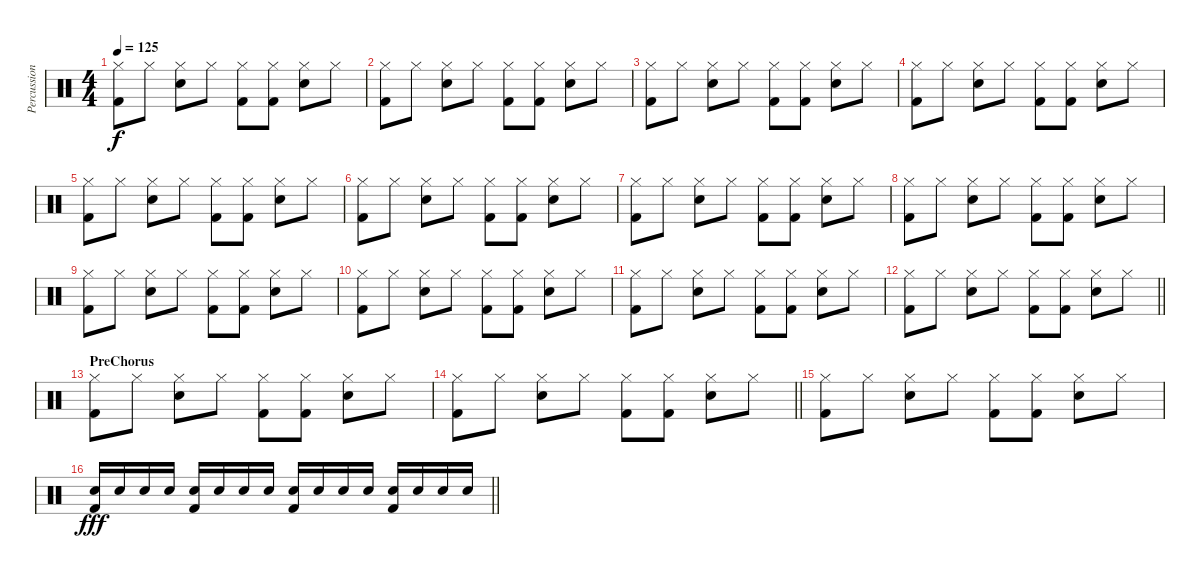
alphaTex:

\track ("Percussion" "Percussion") {instrument percussion}
\staff {score}
\articulation defaults
\ts (4 4)
\tempo 125
\clef neutral
\ks c
("Hi-Hat (closed)" "Kick (hit) 2").8{dy f} "Hi-Hat (closed)".8 ("Hi-Hat (closed)" "Electric Snare (hit)").8 "Hi-Hat (closed)".8 ("Hi-Hat (closed)" "Kick (hit) 2").8 ("Hi-Hat (closed)" "Kick (hit) 2").8 ("Hi-Hat (closed)" "Electric Snare (hit)").8 "Hi-Hat (closed)".8 |
("Hi-Hat (closed)" "Kick (hit) 2").8 "Hi-Hat (closed)".8 ("Hi-Hat (closed)" "Electric Snare (hit)").8 "Hi-Hat (closed)".8 ("Hi-Hat (closed)" "Kick (hit) 2").8 ("Hi-Hat (closed)" "Kick (hit) 2").8 ("Hi-Hat (closed)" "Electric Snare (hit)").8 "Hi-Hat (closed)".8 |
("Hi-Hat (closed)" "Kick (hit) 2").8 "Hi-Hat (closed)".8 ("Hi-Hat (closed)" "Electric Snare (hit)").8 "Hi-Hat (closed)".8 ("Hi-Hat (closed)" "Kick (hit) 2").8 ("Hi-Hat (closed)" "Kick (hit) 2").8 ("Hi-Hat (closed)" "Electric Snare (hit)").8 "Hi-Hat (closed)".8 |
("Hi-Hat (closed)" "Kick (hit) 2").8 "Hi-Hat (closed)".8 ("Hi-Hat (closed)" "Electric Snare (hit)").8 "Hi-Hat (closed)".8 ("Hi-Hat (closed)" "Kick (hit) 2").8 ("Hi-Hat (closed)" "Kick (hit) 2").8 ("Hi-Hat (closed)" "Electric Snare (hit)").8 "Hi-Hat (closed)".8 |
("Hi-Hat (closed)" "Kick (hit) 2").8 "Hi-Hat (closed)".8 ("Hi-Hat (closed)" "Electric Snare (hit)").8 "Hi-Hat (closed)".8 ("Hi-Hat (closed)" "Kick (hit) 2").8 ("Hi-Hat (closed)" "Kick (hit) 2").8 ("Hi-Hat (closed)" "Electric Snare (hit)").8 "Hi-Hat (closed)".8 |
("Hi-Hat (closed)" "Kick (hit) 2").8 "Hi-Hat (closed)".8 ("Hi-Hat (closed)" "Electric Snare (hit)").8 "Hi-Hat (closed)".8 ("Hi-Hat (closed)" "Kick (hit) 2").8 ("Hi-Hat (closed)" "Kick (hit) 2").8 ("Hi-Hat (closed)" "Electric Snare (hit)").8 "Hi-Hat (closed)".8 |
("Hi-Hat (closed)" "Kick (hit) 2").8 "Hi-Hat (closed)".8 ("Hi-Hat (closed)" "Electric Snare (hit)").8 "Hi-Hat (closed)".8 ("Hi-Hat (closed)" "Kick (hit) 2").8 ("Hi-Hat (closed)" "Kick (hit) 2").8 ("Hi-Hat (closed)" "Electric Snare (hit)").8 "Hi-Hat (closed)".8 |
("Hi-Hat (closed)" "Kick (hit) 2").8 "Hi-Hat (closed)".8 ("Hi-Hat (closed)" "Electric Snare (hit)").8 "Hi-Hat (closed)".8 ("Hi-Hat (closed)" "Kick (hit) 2").8 ("Hi-Hat (closed)" "Kick (hit) 2").8 ("Hi-Hat (closed)" "Electric Snare (hit)").8 "Hi-Hat (closed)".8 |
("Hi-Hat (closed)" "Kick (hit) 2").8 "Hi-Hat (closed)".8 ("Hi-Hat (closed)" "Electric Snare (hit)").8 "Hi-Hat (closed)".8 ("Hi-Hat (closed)" "Kick (hit) 2").8 ("Hi-Hat (closed)" "Kick (hit) 2").8 ("Hi-Hat (closed)" "Electric Snare (hit)").8 "Hi-Hat (closed)".8 |
("Hi-Hat (closed)" "Kick (hit) 2").8 "Hi-Hat (closed)".8 ("Hi-Hat (closed)" "Electric Snare (hit)").8 "Hi-Hat (closed)".8 ("Hi-Hat (closed)" "Kick (hit) 2").8 ("Hi-Hat (closed)" "Kick (hit) 2").8 ("Hi-Hat (closed)" "Electric Snare (hit)").8 "Hi-Hat (closed)".8 |
("Hi-Hat (closed)" "Kick (hit) 2").8 "Hi-Hat (closed)".8 ("Hi-Hat (closed)" "Electric Snare (hit)").8 "Hi-Hat (closed)".8 ("Hi-Hat (closed)" "Kick (hit) 2").8 ("Hi-Hat (closed)" "Kick (hit) 2").8 ("Hi-Hat (closed)" "Electric Snare (hit)").8 "Hi-Hat (closed)".8 |
\barLineRight lightlight
("Hi-Hat (closed)" "Kick (hit) 2").8 "Hi-Hat (closed)".8 ("Hi-Hat (closed)" "Electric Snare (hit)").8 "Hi-Hat (closed)".8 ("Hi-Hat (closed)" "Kick (hit) 2").8 ("Hi-Hat (closed)" "Kick (hit) 2").8 ("Hi-Hat (closed)" "Electric Snare (hit)").8 "Hi-Hat (closed)".8 |
\section ("" "PreChorus")
("Hi-Hat (closed)" "Kick (hit) 2").8 "Hi-Hat (closed)".8 ("Hi-Hat (closed)" "Electric Snare (hit)").8 "Hi-Hat (closed)".8 ("Hi-Hat (closed)" "Kick (hit) 2").8 ("Hi-Hat (closed)" "Kick (hit) 2").8 ("Hi-Hat (closed)" "Electric Snare (hit)").8 "Hi-Hat (closed)".8 |
\barLineRight lightlight
("Hi-Hat (closed)" "Kick (hit) 2").8 "Hi-Hat (closed)".8 ("Hi-Hat (closed)" "Electric Snare (hit)").8 "Hi-Hat (closed)".8 ("Hi-Hat (closed)" "Kick (hit) 2").8 ("Hi-Hat (closed)" "Kick (hit) 2").8 ("Hi-Hat (closed)" "Electric Snare (hit)").8 "Hi-Hat (closed)".8 |
("Hi-Hat (closed)" "Kick (hit) 2").8 "Hi-Hat (closed)".8 ("Hi-Hat (closed)" "Electric Snare (hit)").8 "Hi-Hat (closed)".8 ("Hi-Hat (closed)" "Kick (hit) 2").8 ("Hi-Hat (closed)" "Kick (hit) 2").8 ("Hi-Hat (closed)" "Electric Snare (hit)").8 "Hi-Hat (closed)".8 |
\barLineRight lightlight
("Electric Snare (hit)" "Kick (hit) 2").16{dy fff} "Electric Snare (hit)".16 "Electric Snare (hit)".16 "Electric Snare (hit)".16 ("Electric Snare (hit)" "Kick (hit) 2").16 "Electric Snare (hit)".16 "Electric Snare (hit)".16 "Electric Snare (hit)".16 ("Electric Snare (hit)" "Kick (hit) 2").16 "Electric Snare (hit)".16 "Electric Snare (hit)".16 "Electric Snare (hit)".16 ("Electric Snare (hit)" "Kick (hit) 2").16 "Electric Snare (hit)".16 "Electric Snare (hit)".16 "Electric Snare (hit)".16
